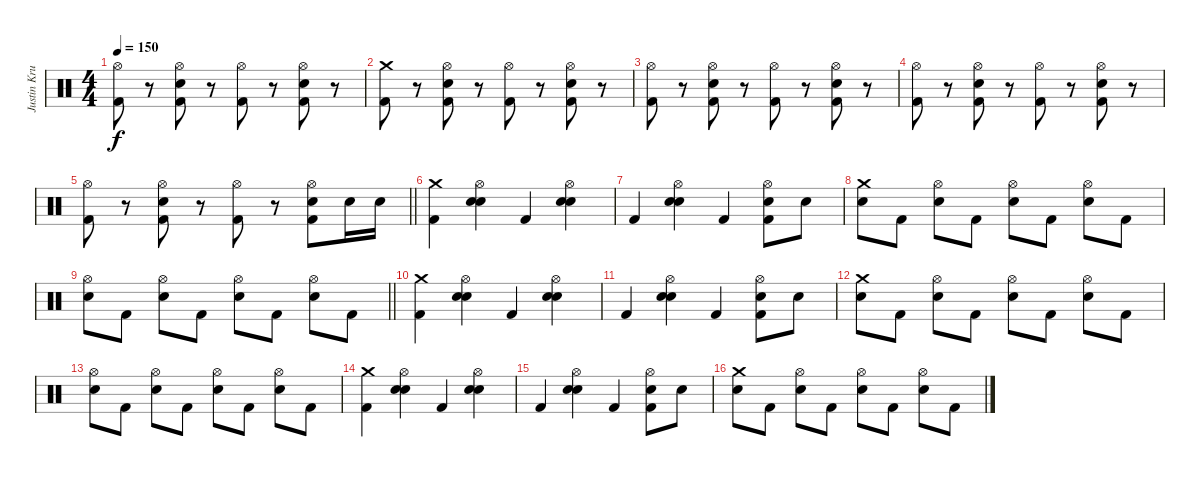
\track ("Justin Kruger" "Justin Kru") {instrument percussion}
\staff {score}
\articulation defaults
\ts (4 4)
\tempo 150
\clef neutral
\ks c
("Hi-Hat (open)" "Kick (hit) 2").8{dy f} r.8 ("Hi-Hat (open)" "Snare (hit) 2" "Kick (hit) 2").8 r.8 ("Hi-Hat (open)" "Kick (hit) 2").8 r.8 ("Hi-Hat (open)" "Snare (hit) 2" "Kick (hit) 2").8 r.8 |
("Crash medium (hit)" "Kick (hit) 2").8 r.8 ("Hi-Hat (open)" "Snare (hit) 2" "Kick (hit) 2").8 r.8 ("Hi-Hat (open)" "Kick (hit) 2").8 r.8 ("Hi-Hat (open)" "Snare (hit) 2" "Kick (hit) 2").8 r.8 |
("Hi-Hat (open)" "Kick (hit) 2").8 r.8 ("Hi-Hat (open)" "Snare (hit) 2" "Kick (hit) 2").8 r.8 ("Hi-Hat (open)" "Kick (hit) 2").8 r.8 ("Hi-Hat (open)" "Snare (hit) 2" "Kick (hit) 2").8 r.8 |
("Hi-Hat (open)" "Kick (hit) 2").8 r.8 ("Hi-Hat (open)" "Snare (hit) 2" "Kick (hit) 2").8 r.8 ("Hi-Hat (open)" "Kick (hit) 2").8 r.8 ("Hi-Hat (open)" "Snare (hit) 2" "Kick (hit) 2").8 r.8 |
\barLineRight lightlight
("Hi-Hat (open)" "Kick (hit) 2").8 r.8 ("Hi-Hat (open)" "Snare (hit) 2" "Kick (hit) 2").8 r.8 ("Hi-Hat (open)" "Kick (hit) 2").8 r.8 ("Hi-Hat (open)" "Snare (hit) 2" "Kick (hit) 2").8 "Snare (hit) 2".16 "Snare (hit) 2".16 |
\section ("" "")
("Crash medium (hit)" "Kick (hit) 2").4 ("Hi-Hat (open)" "Snare (hit) 2" "Snare (hit) 2").4 "Kick (hit) 2".4 ("Hi-Hat (open)" "Snare (hit) 2" "Snare (hit) 2").4 |
"Kick (hit) 2".4 ("Hi-Hat (open)" "Snare (hit) 2" "Snare (hit) 2").4 "Kick (hit) 2".4 ("Hi-Hat (open)" "Snare (hit) 2" "Kick (hit) 2").8 "Snare (hit) 2".8 |
("Crash medium (hit)" "Snare (hit) 2").8 "Kick (hit) 2".8 ("Hi-Hat (open)" "Snare (hit) 2").8 "Kick (hit) 2".8 ("Hi-Hat (open)" "Snare (hit) 2").8 "Kick (hit) 2".8 ("Hi-Hat (open)" "Snare (hit) 2").8 "Kick (hit) 2".8 |
\barLineRight lightlight
("Hi-Hat (open)" "Snare (hit) 2").8 "Kick (hit) 2".8 ("Hi-Hat (open)" "Snare (hit) 2").8 "Kick (hit) 2".8 ("Hi-Hat (open)" "Snare (hit) 2").8 "Kick (hit) 2".8 ("Hi-Hat (open)" "Snare (hit) 2").8 "Kick (hit) 2".8 |
\section ("" "")
("Crash medium (hit)" "Kick (hit) 2").4 ("Hi-Hat (open)" "Snare (hit) 2" "Snare (hit) 2").4 "Kick (hit) 2".4 ("Hi-Hat (open)" "Snare (hit) 2" "Snare (hit) 2").4 |
"Kick (hit) 2".4 ("Hi-Hat (open)" "Snare (hit) 2" "Snare (hit) 2").4 "Kick (hit) 2".4 ("Hi-Hat (open)" "Snare (hit) 2" "Kick (hit) 2").8 "Snare (hit) 2".8 |
("Crash medium (hit)" "Snare (hit) 2").8 "Kick (hit) 2".8 ("Hi-Hat (open)" "Snare (hit) 2").8 "Kick (hit) 2".8 ("Hi-Hat (open)" "Snare (hit) 2").8 "Kick (hit) 2".8 ("Hi-Hat (open)" "Snare (hit) 2").8 "Kick (hit) 2".8 |
("Hi-Hat (open)" "Snare (hit) 2").8 "Kick (hit) 2".8 ("Hi-Hat (open)" "Snare (hit) 2").8 "Kick (hit) 2".8 ("Hi-Hat (open)" "Snare (hit) 2").8 "Kick (hit) 2".8 ("Hi-Hat (open)" "Snare (hit) 2").8 "Kick (hit) 2".8 |
("Crash medium (hit)" "Kick (hit) 2").4 ("Hi-Hat (open)" "Snare (hit) 2" "Snare (hit) 2").4 "Kick (hit) 2".4 ("Hi-Hat (open)" "Snare (hit) 2" "Snare (hit) 2").4 |
"Kick (hit) 2".4 ("Hi-Hat (open)" "Snare (hit) 2" "Snare (hit) 2").4 "Kick (hit) 2".4 ("Hi-Hat (open)" "Snare (hit) 2" "Kick (hit) 2").8 "Snare (hit) 2".8 |
("Crash medium (hit)" "Snare (hit) 2").8 "Kick (hit) 2".8 ("Hi-Hat (open)" "Snare (hit) 2").8 "Kick (hit) 2".8 ("Hi-Hat (open)" "Snare (hit) 2").8 "Kick (hit) 2".8 ("Hi-Hat (open)" "Snare (hit) 2").8 "Kick (hit) 2".8
